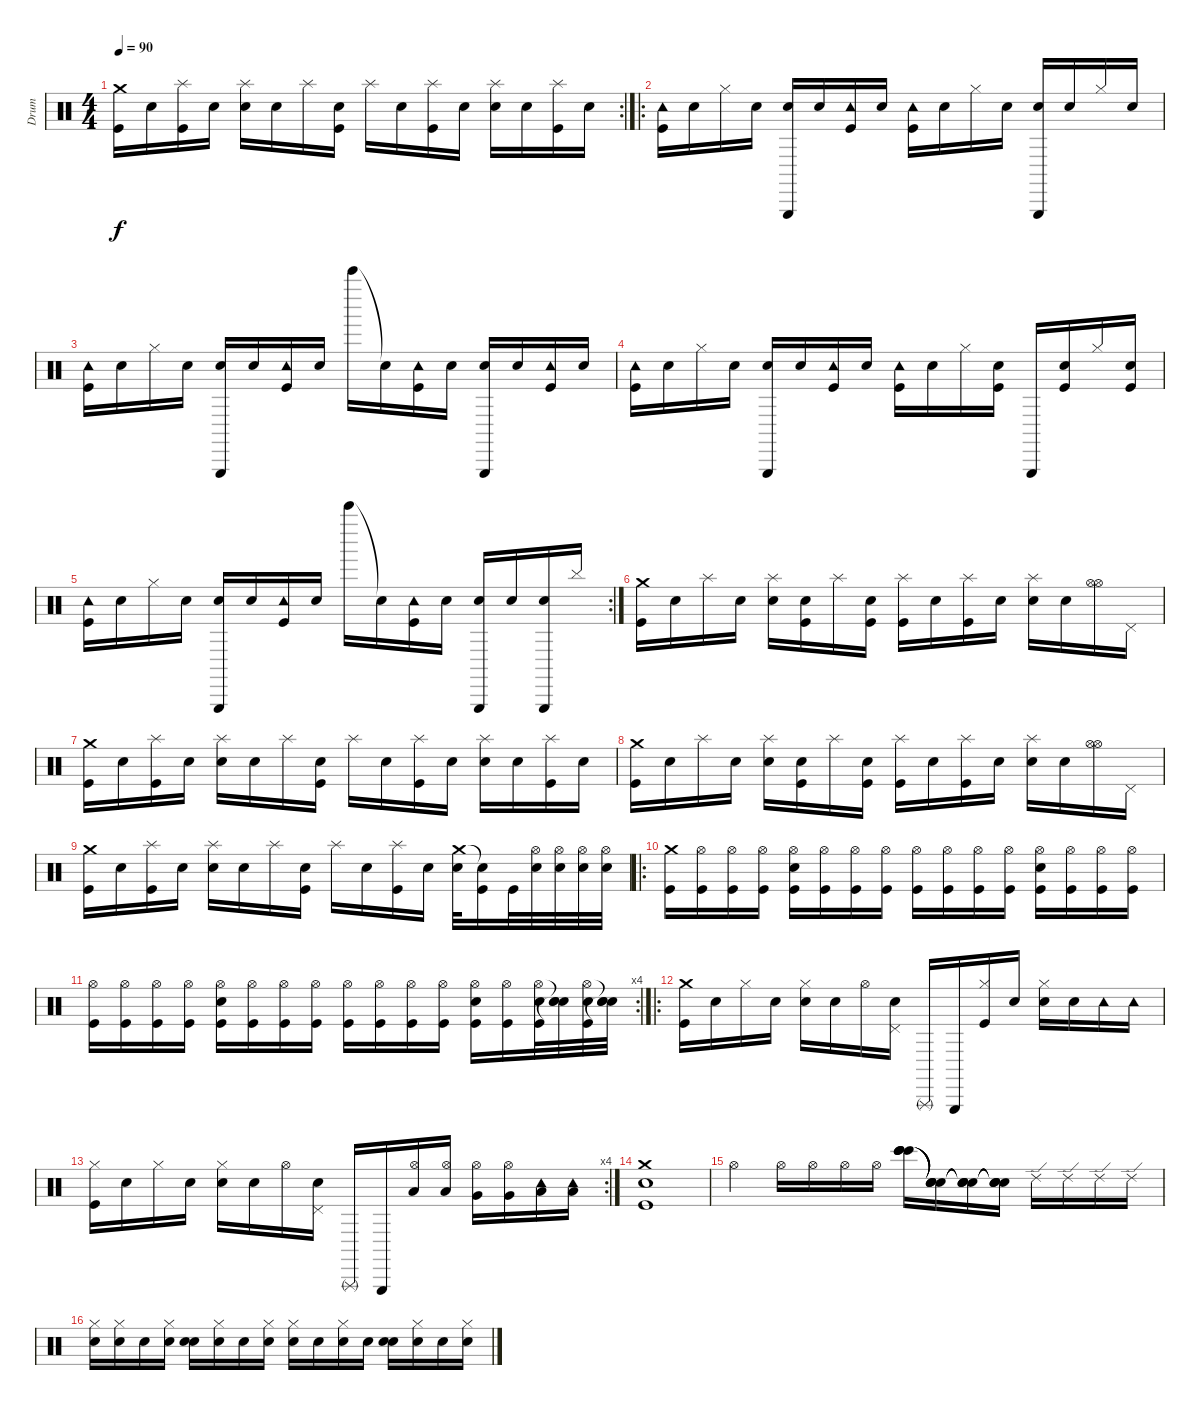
\track ("Drum" "Drum") {instrument percussion}
\staff {score}
\articulation defaults
\rc 2
\ts (4 4)
\tempo 90
\clef neutral
\ks c
("Crash medium (hit)" "Kick (hit)").16{dy f} "Snare (hit)".16 ("Splash (hit)" "Kick (hit)").16 "Snare (hit)".16 ("Splash (hit)" "Snare (hit) 2").16 "Snare (hit)".16 "Splash (hit)".16 ("Snare (hit)" "Kick (hit)").16 "Splash (hit)".16 "Snare (hit)".16 ("Splash (hit)" "Kick (hit)").16 "Snare (hit)".16 ("Splash (hit)" "Snare (hit) 2").16 "Snare (hit)".16 ("Splash (hit)" "Kick (hit)").16 "Snare (hit)".16 |
\ro
("Tambourine (hit)" "Kick (hit)").16 "Snare (hit)".16 "Hi-Hat (closed)".16 "Snare (hit)".16 ("Triangle (hit)" "Metronome (bell)").16 "Snare (hit)".16 ("Tambourine (hit)" "Kick (hit)").16 "Snare (hit)".16 ("Tambourine (hit)" "Kick (hit)").16 "Snare (hit)".16 "Hi-Hat (closed)".16 "Snare (hit)".16 ("Triangle (hit)" "Metronome (bell)").16 "Snare (hit)".16 "Hi-Hat (closed)".16 "Snare (hit)".16 |
("Tambourine (hit)" "Kick (hit)").16 "Snare (hit)".16 "Hi-Hat (closed)".16 "Snare (hit)".16 ("Triangle (hit)" "Metronome (bell)").16 "Snare (hit)".16 ("Tambourine (hit)" "Kick (hit)").16 "Snare (hit)".16 "Bell Tree (hit)".16 "Snare (hit)"{t}.16 ("Tambourine (hit)" "Kick (hit)").16 "Snare (hit)".16 ("Triangle (hit)" "Metronome (bell)").16 "Snare (hit)".16 ("Tambourine (hit)" "Kick (hit)").16 "Snare (hit)".16 |
("Tambourine (hit)" "Kick (hit)").16 "Snare (hit)".16 "Hi-Hat (closed)".16 "Snare (hit)".16 ("Triangle (hit)" "Metronome (bell)").16 "Snare (hit)".16 ("Tambourine (hit)" "Kick (hit)").16 "Snare (hit)".16 ("Tambourine (hit)" "Kick (hit)").16 "Snare (hit)".16 "Hi-Hat (closed)".16 ("Snare (hit)" "Kick (hit)").16 "Triangle (hit)".16 ("Snare (hit)" "Kick (hit)").16 "Hi-Hat (closed)".16 ("Snare (hit)" "Kick (hit)").16 |
\rc 2
("Tambourine (hit)" "Kick (hit)").16 "Snare (hit)".16 "Hi-Hat (closed)".16 "Snare (hit)".16 ("Triangle (hit)" "Metronome (bell)").16 "Snare (hit)".16 ("Tambourine (hit)" "Kick (hit)").16 "Snare (hit)".16 "Bell Tree (hit)".16 "Snare (hit)"{t}.16 ("Tambourine (hit)" "Kick (hit)").16 "Snare (hit)".16 ("Triangle (hit)" "Metronome (bell)").16 "Snare (hit)".16 ("Triangle (hit)" "Metronome (bell)").16 "Cymbal (hit)".16 |
("Crash medium (hit)" "Kick (hit)").16 "Snare (hit)".16 "Splash (hit)".16 "Snare (hit)".16 ("Splash (hit)" "Snare (hit) 2").16 ("Snare (hit)" "Kick (hit)").16 "Splash (hit)".16 ("Snare (hit)" "Kick (hit)").16 ("Splash (hit)" "Kick (hit)").16 "Snare (hit)".16 ("Splash (hit)" "Kick (hit)").16 "Snare (hit)".16 ("Splash (hit)" "Snare (hit) 2").16 "Snare (hit)".16 ("Hi-Hat (open)" "Hi-Hat (open)").16 "Pedal Hi-Hat (hit)".16 |
("Crash medium (hit)" "Kick (hit)").16 "Snare (hit)".16 ("Splash (hit)" "Kick (hit)").16 "Snare (hit)".16 ("Splash (hit)" "Snare (hit) 2").16 "Snare (hit)".16 "Splash (hit)".16 ("Snare (hit)" "Kick (hit)").16 "Splash (hit)".16 "Snare (hit)".16 ("Splash (hit)" "Kick (hit)").16 "Snare (hit)".16 ("Splash (hit)" "Snare (hit) 2").16 "Snare (hit)".16 ("Splash (hit)" "Kick (hit)").16 "Snare (hit)".16 |
("Crash medium (hit)" "Kick (hit)").16 "Snare (hit)".16 "Splash (hit)".16 "Snare (hit)".16 ("Splash (hit)" "Snare (hit) 2").16 ("Snare (hit)" "Kick (hit)").16 "Splash (hit)".16 ("Snare (hit)" "Kick (hit)").16 ("Splash (hit)" "Kick (hit)").16 "Snare (hit)".16 ("Splash (hit)" "Kick (hit)").16 "Snare (hit)".16 ("Splash (hit)" "Snare (hit) 2").16 "Snare (hit)".16 ("Hi-Hat (open)" "Hi-Hat (open)").16 "Pedal Hi-Hat (hit)".16 |
("Crash medium (hit)" "Kick (hit)").16 "Snare (hit)".16 ("Splash (hit)" "Kick (hit)").16 "Snare (hit)".16 ("Splash (hit)" "Snare (hit) 2").16 "Snare (hit)".16 "Splash (hit)".16 ("Snare (hit)" "Kick (hit)").16 "Splash (hit)".16 "Snare (hit)".16 ("Splash (hit)" "Kick (hit)").16 "Snare (hit)".16 ("Crash medium (hit)" "Snare (hit) 2").32 ("Snare (hit)"{t} "Kick (hit)").16 "Kick (hit)".32 ("Hi-Hat (open)" "Snare (hit) 2").32 ("Hi-Hat (open)" "Snare (hit) 2").32 ("Hi-Hat (open)" "Snare (hit) 2").32 ("Hi-Hat (open)" "Snare (hit) 2").32 |
\ro
("Crash medium (hit)" "Kick (hit)").16 ("Hi-Hat (open)" "Kick (hit)").16 ("Hi-Hat (open)" "Kick (hit)").16 ("Hi-Hat (open)" "Kick (hit)").16 ("Hi-Hat (open)" "Snare (hit) 2" "Kick (hit)").16 ("Hi-Hat (open)" "Kick (hit)").16 ("Hi-Hat (open)" "Kick (hit)").16 ("Hi-Hat (open)" "Kick (hit)").16 ("Hi-Hat (open)" "Kick (hit)").16 ("Hi-Hat (open)" "Kick (hit)").16 ("Hi-Hat (open)" "Kick (hit)").16 ("Hi-Hat (open)" "Kick (hit)").16 ("Hi-Hat (open)" "Snare (hit) 2" "Kick (hit)").16 ("Hi-Hat (open)" "Kick (hit)").16 ("Hi-Hat (open)" "Kick (hit)").16 ("Hi-Hat (open)" "Kick (hit)").16 |
\rc 4
("Hi-Hat (open)" "Kick (hit)").16 ("Hi-Hat (open)" "Kick (hit)").16 ("Hi-Hat (open)" "Kick (hit)").16 ("Hi-Hat (open)" "Kick (hit)").16 ("Hi-Hat (open)" "Snare (hit) 2" "Kick (hit)").16 ("Hi-Hat (open)" "Kick (hit)").16 ("Hi-Hat (open)" "Kick (hit)").16 ("Hi-Hat (open)" "Kick (hit)").16 ("Hi-Hat (open)" "Kick (hit)").16 ("Hi-Hat (open)" "Kick (hit)").16 ("Hi-Hat (open)" "Kick (hit)").16 ("Hi-Hat (open)" "Kick (hit)").16 ("Hi-Hat (open)" "Snare (hit) 2" "Kick (hit)").16 ("Hi-Hat (open)" "Kick (hit)").16 ("Hi-Hat (open)" "Snare (hit) 2" "Kick (hit)").32 ("Snare (hit)"{t} "Snare (hit) 2" "Snare (hit)"{t}).32 ("Hi-Hat (open)" "Snare (hit) 2" "Kick (hit)").32 ("Snare (hit)"{t} "Snare (hit) 2" "Snare (hit)"{t}).32 |
\ro
("Crash medium (hit)" "Kick (hit)").16 "Snare (hit)".16 "Hi-Hat (closed)".16 "Snare (hit)".16 ("Hi-Hat (closed)" "Snare (hit) 2").16 "Snare (hit)".16 "Hi-Hat (open)".16 ("Pedal Hi-Hat (hit)" "Snare (hit) 2").16 "Triangle (rnute)".16 "Triangle (hit)".16 ("Hi-Hat (closed)" "Kick (hit)").16 "Snare (hit)".16 ("Hi-Hat (closed)" "Snare (hit) 2").16 "Snare (hit)".16 "Tambourine (hit)".16 "Tambourine (hit)".16 |
\rc 4
("Hi-Hat (closed)" "Kick (hit)").16 "Snare (hit)".16 "Hi-Hat (closed)".16 "Snare (hit)".16 ("Hi-Hat (closed)" "Snare (hit) 2").16 "Snare (hit)".16 "Hi-Hat (open)".16 ("Pedal Hi-Hat (hit)" "Snare (hit) 2").16 "Triangle (rnute)".16 "Triangle (hit)".16 ("Hi-Hat (open)" "Low Tom (hit)").16 ("Hi-Hat (open)" "Low Tom (hit)").16 ("Hi-Hat (open)" "Very Low Tom (hit)").16 ("Hi-Hat (open)" "Very Low Tom (hit)").16 ("Tambourine (hit)" "Low Floor Tom (hit)").16 ("Tambourine (hit)" "Low Floor Tom (hit)").16 |
("Crash medium (hit)" "Snare (hit) 2" "Kick (hit)").1 |
"Hi-Hat (open)".4 "Hi-Hat (open)".16 "Hi-Hat (open)".16 "Hi-Hat (open)".16 "Hi-Hat (open)".16 ("Bongo High (hit)" "Bongo High (hit)" "Bongo High (hit)" "Bongo High (hit)").16 ("Snare (hit)"{t} "Snare (hit)"{t} "Snare (hit)"{t} "Snare (hit)"{t}).16 ("Snare (hit)"{t} "Snare (hit)"{t} "Snare (hit)"{t} "Snare (hit)"{t}).16 ("Snare (hit)"{t} "Snare (hit)"{t} "Snare (hit)"{t} "Snare (hit)"{t}).16 "Ride (edge) 2".16 "Ride (edge) 2".16 "Ride (edge) 2".16 "Ride (edge) 2".16 |
("Snare (hit)" "Hi-Hat (closed)").16 ("Snare (hit)" "Hi-Hat (closed)").16 "Snare (hit)".16 ("Snare (hit)" "Hi-Hat (closed)").16 ("Snare (hit)" "Snare (hit)").16 ("Snare (hit)" "Hi-Hat (closed)").16 "Snare (hit)".16 ("Snare (hit)" "Hi-Hat (closed)").16 ("Snare (hit)" "Hi-Hat (closed)").16 "Snare (hit)".16 ("Snare (hit)" "Hi-Hat (closed)").16 "Snare (hit)".16 ("Snare (hit)" "Snare (hit)").16 ("Snare (hit)" "Hi-Hat (closed)").16 "Snare (hit)".16 ("Snare (hit)" "Hi-Hat (closed)").16
